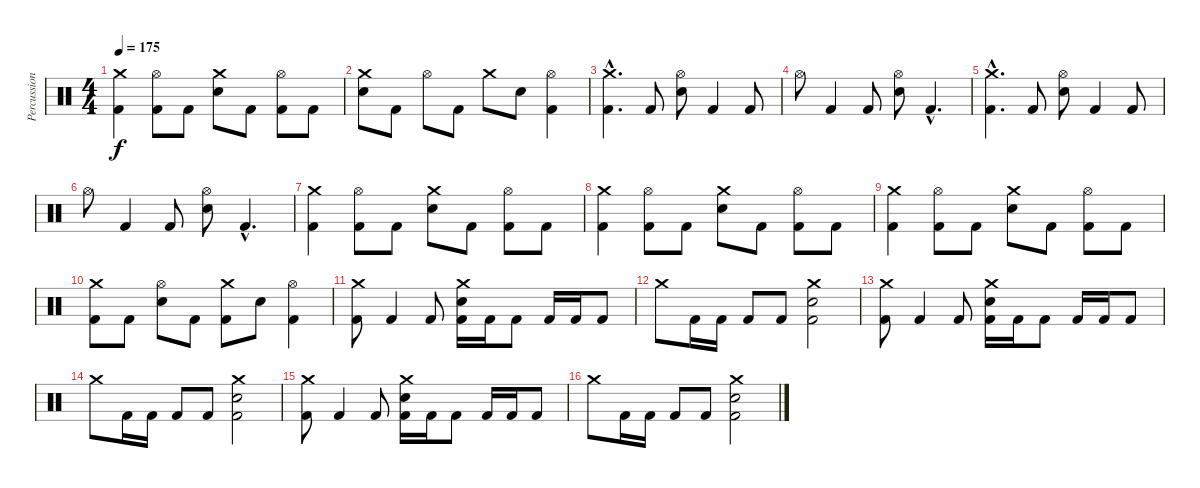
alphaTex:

\track ("Percussion" "Percussion") {instrument percussion}
\staff {score}
\articulation defaults
\ts (4 4)
\tempo 175
\clef neutral
\ks c
("Crash medium (hit)" "Kick (hit) 2").4{dy f} ("Hi-Hat (open)" "Kick (hit) 2").8 "Kick (hit) 2".8 ("Crash medium (hit)" "Electric Snare (hit)").8 "Kick (hit) 2".8 ("Hi-Hat (open)" "Kick (hit) 2").8 "Kick (hit) 2".8 |
("Crash medium (hit)" "Electric Snare (hit)").8 "Kick (hit) 2".8 "Hi-Hat (open)".8 "Kick (hit) 2".8 "Crash medium (hit)".8 "Electric Snare (hit)".8 ("Hi-Hat (open)" "Kick (hit) 2").4 |
("Crash medium (hit)"{hac} "Kick (hit) 2"{hac}).4{d} "Kick (hit) 2".8 ("Hi-Hat (open)" "Electric Snare (hit)").8 "Kick (hit) 2".4 "Kick (hit) 2".8 |
"Hi-Hat (open)".8 "Kick (hit) 2".4 "Kick (hit) 2".8 ("Hi-Hat (open)" "Electric Snare (hit)").8 "Kick (hit) 2"{hac}.4{d} |
("Crash medium (hit)"{hac} "Kick (hit) 2"{hac}).4{d} "Kick (hit) 2".8 ("Hi-Hat (open)" "Electric Snare (hit)").8 "Kick (hit) 2".4 "Kick (hit) 2".8 |
"Hi-Hat (open)".8 "Kick (hit) 2".4 "Kick (hit) 2".8 ("Hi-Hat (open)" "Electric Snare (hit)").8 "Kick (hit) 2"{hac}.4{d} |
("Crash medium (hit)" "Kick (hit) 2").4 ("Hi-Hat (open)" "Kick (hit) 2").8 "Kick (hit) 2".8 ("Crash medium (hit)" "Electric Snare (hit)").8 "Kick (hit) 2".8 ("Hi-Hat (open)" "Kick (hit) 2").8 "Kick (hit) 2".8 |
("Crash medium (hit)" "Kick (hit) 2").4 ("Hi-Hat (open)" "Kick (hit) 2").8 "Kick (hit) 2".8 ("Crash medium (hit)" "Electric Snare (hit)").8 "Kick (hit) 2".8 ("Hi-Hat (open)" "Kick (hit) 2").8 "Kick (hit) 2".8 |
("Crash medium (hit)" "Kick (hit) 2").4 ("Hi-Hat (open)" "Kick (hit) 2").8 "Kick (hit) 2".8 ("Crash medium (hit)" "Electric Snare (hit)").8 "Kick (hit) 2".8 ("Hi-Hat (open)" "Kick (hit) 2").8 "Kick (hit) 2".8 |
("Crash medium (hit)" "Kick (hit) 2").8 "Kick (hit) 2".8 ("Hi-Hat (open)" "Electric Snare (hit)").8 "Kick (hit) 2".8 ("Crash medium (hit)" "Kick (hit) 2").8 "Electric Snare (hit)".8 ("Hi-Hat (open)" "Kick (hit) 2").4 |
("Crash medium (hit)" "Kick (hit) 2").8 "Kick (hit) 2".4 "Kick (hit) 2".8 ("Crash medium (hit)" "Electric Snare (hit)" "Kick (hit) 2").16 "Kick (hit) 2".16 "Kick (hit) 2".8 "Kick (hit) 2".16 "Kick (hit) 2".16 "Kick (hit) 2".8 |
"Crash medium (hit)".8 "Kick (hit) 2".16 "Kick (hit) 2".16 "Kick (hit) 2".8 "Kick (hit) 2".8 ("Crash medium (hit)" "Electric Snare (hit)" "Kick (hit) 2").2 |
("Crash medium (hit)" "Kick (hit) 2").8 "Kick (hit) 2".4 "Kick (hit) 2".8 ("Crash medium (hit)" "Electric Snare (hit)" "Kick (hit) 2").16 "Kick (hit) 2".16 "Kick (hit) 2".8 "Kick (hit) 2".16 "Kick (hit) 2".16 "Kick (hit) 2".8 |
"Crash medium (hit)".8 "Kick (hit) 2".16 "Kick (hit) 2".16 "Kick (hit) 2".8 "Kick (hit) 2".8 ("Crash medium (hit)" "Electric Snare (hit)" "Kick (hit) 2").2 |
("Crash medium (hit)" "Kick (hit) 2").8 "Kick (hit) 2".4 "Kick (hit) 2".8 ("Crash medium (hit)" "Electric Snare (hit)" "Kick (hit) 2").16 "Kick (hit) 2".16 "Kick (hit) 2".8 "Kick (hit) 2".16 "Kick (hit) 2".16 "Kick (hit) 2".8 |
"Crash medium (hit)".8 "Kick (hit) 2".16 "Kick (hit) 2".16 "Kick (hit) 2".8 "Kick (hit) 2".8 ("Crash medium (hit)" "Electric Snare (hit)" "Kick (hit) 2").2
